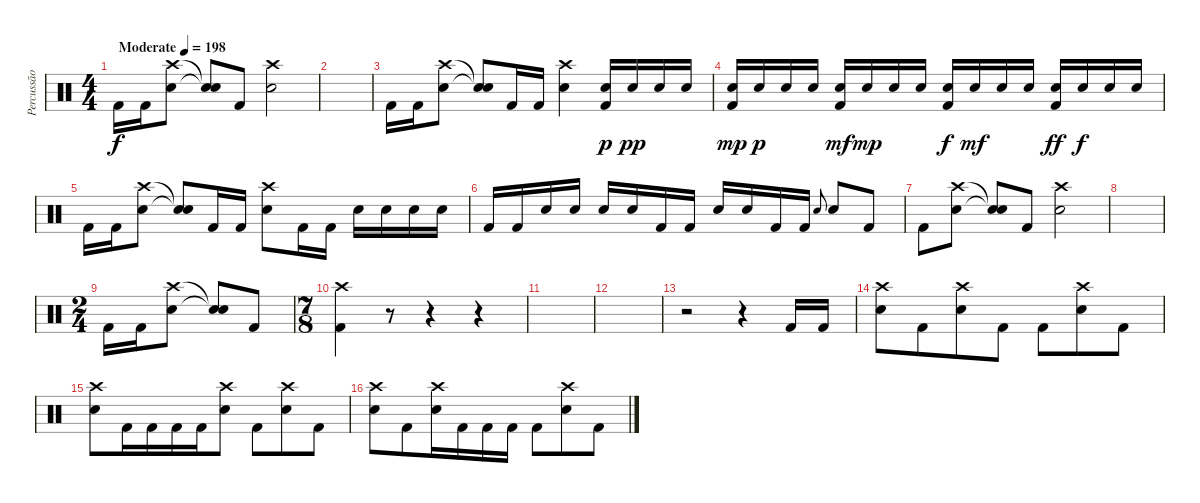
\track ("Percussão" "Percussão") {instrument percussion}
\staff {score}
\articulation defaults
\ts (4 4)
\tempo (198 "Moderate")
\clef neutral
\ks c "Kick (hit) 2".16{dy f} "Kick (hit) 2".16
("Crash high (hit)" "Snare (hit) 2").8 ("Snare (hit)"{t} "Snare (hit)"{t}).8 "Kick (hit) 2".8 ("Crash high (hit)" "Snare (hit) 2").2 |
|
"Kick (hit) 2".16 "Kick (hit) 2".16 ("Crash high (hit)" "Snare (hit) 2").8 ("Snare (hit)"{t} "Snare (hit)"{t}).8 "Kick (hit) 2".16 "Kick (hit) 2".16 ("Crash high (hit)" "Snare (hit) 2").4 ("Snare (hit) 2" "Kick (hit) 2").16{dy p} "Snare (hit) 2".16{dy pp} "Snare (hit) 2".16 "Snare (hit) 2".16 |
("Snare (hit) 2" "Kick (hit) 2").16{dy mp} "Snare (hit) 2".16{dy p} "Snare (hit) 2".16 "Snare (hit) 2".16 ("Snare (hit) 2" "Kick (hit) 2").16{dy mf} "Snare (hit) 2".16{dy mp} "Snare (hit) 2".16 "Snare (hit) 2".16 ("Snare (hit) 2" "Kick (hit) 2").16{dy f} "Snare (hit) 2".16{dy mf} "Snare (hit) 2".16 "Snare (hit) 2".16 ("Snare (hit) 2" "Kick (hit) 2").16{dy ff} "Snare (hit) 2".16{dy f} "Snare (hit) 2".16 "Snare (hit) 2".16 |
"Kick (hit) 2".16 "Kick (hit) 2".16 ("Crash high (hit)" "Snare (hit) 2").8 ("Snare (hit)"{t} "Snare (hit)"{t}).8 "Kick (hit) 2".16 "Kick (hit) 2".16 ("Crash high (hit)" "Snare (hit) 2").8 "Kick (hit) 2".16 "Kick (hit) 2".16 "Snare (hit) 2".16 "Snare (hit) 2".16 "Snare (hit) 2".16 "Snare (hit) 2".16 |
"Kick (hit) 2".16 "Kick (hit) 2".16 "Snare (hit) 2".16 "Snare (hit) 2".16 "Snare (hit) 2".16 "Snare (hit) 2".16 "Kick (hit) 2".16 "Kick (hit) 2".16 "Snare (hit) 2".16 "Snare (hit) 2".16 "Kick (hit) 2".16 "Kick (hit) 2".16 "Snare (hit) 2".8{gr onbeat} "Snare (hit) 2".8 "Kick (hit) 2".8 |
"Kick (hit) 2".8 ("Crash high (hit)" "Snare (hit) 2").8 ("Snare (hit)"{t} "Snare (hit)"{t}).8 "Kick (hit) 2".8 ("Crash high (hit)" "Snare (hit) 2").2 |
|
\ts (2 4)
"Kick (hit) 2".16 "Kick (hit) 2".16 ("Crash high (hit)" "Snare (hit) 2").8 ("Snare (hit)"{t} "Snare (hit)"{t}).8 "Kick (hit) 2".8 |
\ts (7 8)
("Crash high (hit)" "Kick (hit) 2").4 r.8{volume 0} r.4 r.4 |
|
|
r.2 r.4 "Kick (hit) 2".16{volume 16} "Kick (hit) 2".16 |
("Crash high (hit)" "Snare (hit) 2").8 "Kick (hit) 2".8 ("Crash high (hit)" "Snare (hit) 2").8 "Kick (hit) 2".8 "Kick (hit) 2".8 ("Crash high (hit)" "Snare (hit) 2").8 "Kick (hit) 2".8 |
("Crash high (hit)" "Snare (hit) 2").8 "Kick (hit) 2".16 "Kick (hit) 2".16 "Kick (hit) 2".16 "Kick (hit) 2".16 ("Crash high (hit)" "Snare (hit) 2").8 "Kick (hit) 2".8 ("Crash high (hit)" "Snare (hit) 2").8 "Kick (hit) 2".8 |
("Crash high (hit)" "Snare (hit) 2").8 "Kick (hit) 2".8 ("Crash high (hit)" "Snare (hit) 2").16 "Kick (hit) 2".16 "Kick (hit) 2".16 "Kick (hit) 2".16 "Kick (hit) 2".8 ("Crash high (hit)" "Snare (hit) 2").8 "Kick (hit) 2".8
